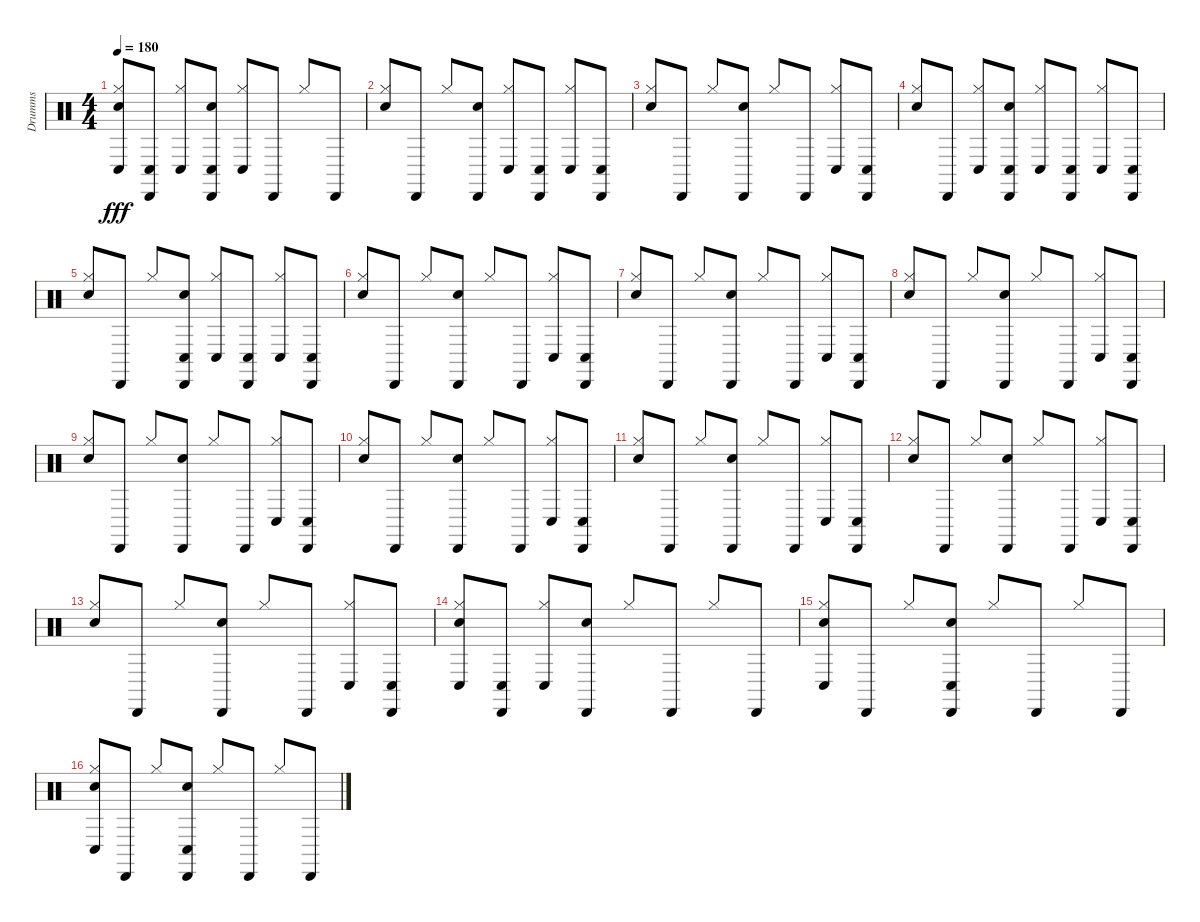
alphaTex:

\track ("Drumms" "Drumms") {instrument percussion}
\staff {score}
\articulation defaults
\ts (4 4)
\tempo 180
\clef neutral
\ks c
("Hi-Hat (closed)" "Metronome (bell)" "Conga low (hit)").8{dy fff} ("Cabasa (hit)" "Conga low (hit)").8 ("Hi-Hat (closed)" "Conga low (hit)").8 ("Cabasa (hit)" "Metronome (bell)" "Conga low (hit)").8 ("Hi-Hat (closed)" "Conga low (hit)").8 "Cabasa (hit)".8 "Hi-Hat (closed)".8 "Cabasa (hit)".8 |
("Hi-Hat (closed)" "Metronome (bell)").8 "Cabasa (hit)".8 "Hi-Hat (closed)".8 ("Cabasa (hit)" "Metronome (bell)").8 ("Hi-Hat (closed)" "Conga low (hit)").8 ("Cabasa (hit)" "Conga low (hit)").8 ("Hi-Hat (closed)" "Conga low (hit)").8 ("Cabasa (hit)" "Conga low (hit)").8 |
("Hi-Hat (closed)" "Metronome (bell)").8 "Cabasa (hit)".8 "Hi-Hat (closed)".8 ("Cabasa (hit)" "Metronome (bell)").8 "Hi-Hat (closed)".8 "Cabasa (hit)".8 ("Hi-Hat (closed)" "Conga low (hit)").8 ("Cabasa (hit)" "Conga low (hit)").8 |
("Hi-Hat (closed)" "Metronome (bell)").8 "Cabasa (hit)".8 ("Hi-Hat (closed)" "Conga low (hit)").8 ("Cabasa (hit)" "Metronome (bell)" "Conga low (hit)").8 ("Hi-Hat (closed)" "Conga low (hit)").8 ("Cabasa (hit)" "Conga low (hit)").8 ("Hi-Hat (closed)" "Conga low (hit)").8 ("Cabasa (hit)" "Conga low (hit)").8 |
("Hi-Hat (closed)" "Metronome (bell)").8 "Cabasa (hit)".8 "Hi-Hat (closed)".8 ("Cabasa (hit)" "Metronome (bell)" "Conga low (hit)").8 ("Hi-Hat (closed)" "Conga low (hit)").8 ("Cabasa (hit)" "Conga low (hit)").8 ("Hi-Hat (closed)" "Conga low (hit)").8 ("Cabasa (hit)" "Conga low (hit)").8 |
("Hi-Hat (closed)" "Metronome (bell)").8 "Cabasa (hit)".8 "Hi-Hat (closed)".8 ("Cabasa (hit)" "Metronome (bell)").8 "Hi-Hat (closed)".8 "Cabasa (hit)".8 ("Hi-Hat (closed)" "Conga low (hit)").8 ("Cabasa (hit)" "Conga low (hit)").8 |
("Hi-Hat (closed)" "Metronome (bell)").8 "Cabasa (hit)".8 "Hi-Hat (closed)".8 ("Cabasa (hit)" "Metronome (bell)").8 "Hi-Hat (closed)".8 "Cabasa (hit)".8 ("Hi-Hat (closed)" "Conga low (hit)").8 ("Cabasa (hit)" "Conga low (hit)").8 |
("Hi-Hat (closed)" "Metronome (bell)").8 "Cabasa (hit)".8 "Hi-Hat (closed)".8 ("Cabasa (hit)" "Metronome (bell)").8 "Hi-Hat (closed)".8 "Cabasa (hit)".8 ("Hi-Hat (closed)" "Conga low (hit)").8 ("Cabasa (hit)" "Conga low (hit)").8 |
("Hi-Hat (closed)" "Metronome (bell)").8 "Cabasa (hit)".8 "Hi-Hat (closed)".8 ("Cabasa (hit)" "Metronome (bell)").8 "Hi-Hat (closed)".8 "Cabasa (hit)".8 ("Hi-Hat (closed)" "Conga low (hit)").8 ("Cabasa (hit)" "Conga low (hit)").8 |
("Hi-Hat (closed)" "Metronome (bell)").8 "Cabasa (hit)".8 "Hi-Hat (closed)".8 ("Cabasa (hit)" "Metronome (bell)").8 "Hi-Hat (closed)".8 "Cabasa (hit)".8 ("Hi-Hat (closed)" "Conga low (hit)").8 ("Cabasa (hit)" "Conga low (hit)").8 |
("Hi-Hat (closed)" "Metronome (bell)").8 "Cabasa (hit)".8 "Hi-Hat (closed)".8 ("Cabasa (hit)" "Metronome (bell)").8 "Hi-Hat (closed)".8 "Cabasa (hit)".8 ("Hi-Hat (closed)" "Conga low (hit)").8 ("Cabasa (hit)" "Conga low (hit)").8 |
("Hi-Hat (closed)" "Metronome (bell)").8 "Cabasa (hit)".8 "Hi-Hat (closed)".8 ("Cabasa (hit)" "Metronome (bell)").8 "Hi-Hat (closed)".8 "Cabasa (hit)".8 ("Hi-Hat (closed)" "Conga low (hit)").8 ("Cabasa (hit)" "Conga low (hit)").8 |
("Hi-Hat (closed)" "Metronome (bell)").8 "Cabasa (hit)".8 "Hi-Hat (closed)".8 ("Cabasa (hit)" "Metronome (bell)").8 "Hi-Hat (closed)".8 "Cabasa (hit)".8 ("Hi-Hat (closed)" "Conga low (hit)").8 ("Cabasa (hit)" "Conga low (hit)").8 |
("Hi-Hat (closed)" "Metronome (bell)" "Conga low (hit)").8 ("Cabasa (hit)" "Conga low (hit)").8 ("Hi-Hat (closed)" "Conga low (hit)").8 ("Cabasa (hit)" "Metronome (bell)").8 "Hi-Hat (closed)".8 "Cabasa (hit)".8 "Hi-Hat (closed)".8 "Cabasa (hit)".8 |
("Hi-Hat (closed)" "Metronome (bell)" "Conga low (hit)").8 "Cabasa (hit)".8 "Hi-Hat (closed)".8 ("Cabasa (hit)" "Metronome (bell)" "Conga low (hit)").8 "Hi-Hat (closed)".8 "Cabasa (hit)".8 "Hi-Hat (closed)".8 "Cabasa (hit)".8 |
("Hi-Hat (closed)" "Metronome (bell)" "Conga low (hit)").8 "Cabasa (hit)".8 "Hi-Hat (closed)".8 ("Cabasa (hit)" "Metronome (bell)" "Conga low (hit)").8 "Hi-Hat (closed)".8 "Cabasa (hit)".8 "Hi-Hat (closed)".8 "Cabasa (hit)".8
